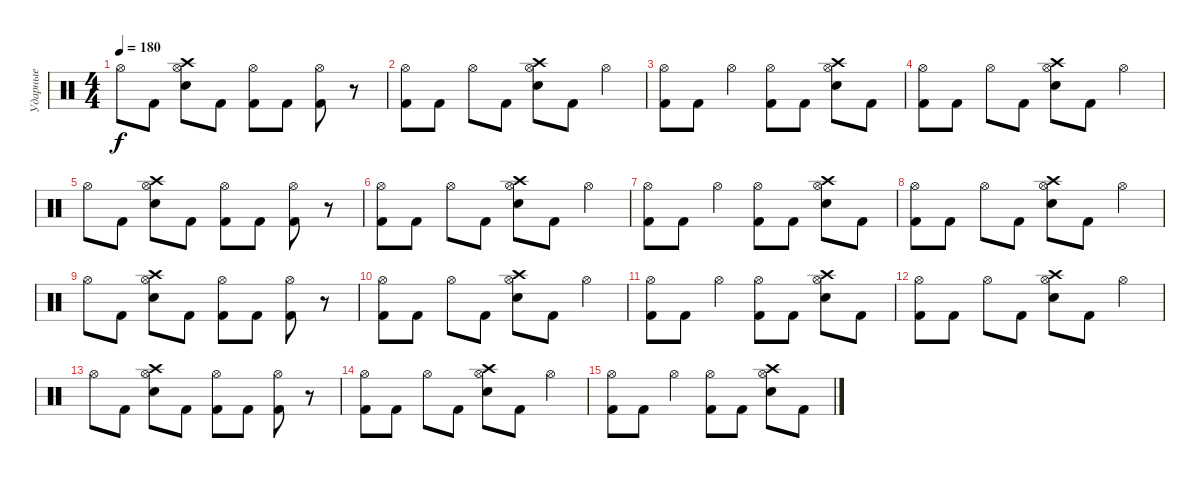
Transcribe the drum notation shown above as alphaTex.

\track ("Ударные" "Ударные") {instrument percussion}
\staff {score}
\articulation defaults
\ts (4 4)
\tempo 180
\clef neutral
\ks c "Hi-Hat (open)".8{dy f} "Kick (hit) 2".8
("Electric Snare (hit)" "Crash high (hit)" "Hi-Hat (open)").8 "Kick (hit) 2".8 ("Kick (hit) 2" "Hi-Hat (open)").8 "Kick (hit) 2".8 ("Kick (hit) 2" "Hi-Hat (open)").8 r.8 |
("Kick (hit) 2" "Hi-Hat (open)").8 "Kick (hit) 2".8 "Hi-Hat (open)".8 "Kick (hit) 2".8 ("Electric Snare (hit)" "Crash high (hit)" "Hi-Hat (open)").8 "Kick (hit) 2".8 "Hi-Hat (open)".4 |
("Kick (hit) 2" "Hi-Hat (open)").8 "Kick (hit) 2".8 "Hi-Hat (open)".4 ("Kick (hit) 2" "Hi-Hat (open)").8 "Kick (hit) 2".8 ("Electric Snare (hit)" "Crash high (hit)" "Hi-Hat (open)").8 "Kick (hit) 2".8 |
("Kick (hit) 2" "Hi-Hat (open)").8 "Kick (hit) 2".8 "Hi-Hat (open)".8 "Kick (hit) 2".8 ("Electric Snare (hit)" "Crash high (hit)" "Hi-Hat (open)").8 "Kick (hit) 2".8 "Hi-Hat (open)".4 |
"Hi-Hat (open)".8 "Kick (hit) 2".8 ("Electric Snare (hit)" "Crash high (hit)" "Hi-Hat (open)").8 "Kick (hit) 2".8 ("Kick (hit) 2" "Hi-Hat (open)").8 "Kick (hit) 2".8 ("Kick (hit) 2" "Hi-Hat (open)").8 r.8 |
("Kick (hit) 2" "Hi-Hat (open)").8 "Kick (hit) 2".8 "Hi-Hat (open)".8 "Kick (hit) 2".8 ("Electric Snare (hit)" "Crash high (hit)" "Hi-Hat (open)").8 "Kick (hit) 2".8 "Hi-Hat (open)".4 |
("Kick (hit) 2" "Hi-Hat (open)").8 "Kick (hit) 2".8 "Hi-Hat (open)".4 ("Kick (hit) 2" "Hi-Hat (open)").8 "Kick (hit) 2".8 ("Electric Snare (hit)" "Crash high (hit)" "Hi-Hat (open)").8 "Kick (hit) 2".8 |
("Kick (hit) 2" "Hi-Hat (open)").8 "Kick (hit) 2".8 "Hi-Hat (open)".8 "Kick (hit) 2".8 ("Electric Snare (hit)" "Crash high (hit)" "Hi-Hat (open)").8 "Kick (hit) 2".8 "Hi-Hat (open)".4 |
"Hi-Hat (open)".8 "Kick (hit) 2".8 ("Electric Snare (hit)" "Crash high (hit)" "Hi-Hat (open)").8 "Kick (hit) 2".8 ("Kick (hit) 2" "Hi-Hat (open)").8 "Kick (hit) 2".8 ("Kick (hit) 2" "Hi-Hat (open)").8 r.8 |
("Kick (hit) 2" "Hi-Hat (open)").8 "Kick (hit) 2".8 "Hi-Hat (open)".8 "Kick (hit) 2".8 ("Electric Snare (hit)" "Crash high (hit)" "Hi-Hat (open)").8 "Kick (hit) 2".8 "Hi-Hat (open)".4 |
("Kick (hit) 2" "Hi-Hat (open)").8 "Kick (hit) 2".8 "Hi-Hat (open)".4 ("Kick (hit) 2" "Hi-Hat (open)").8 "Kick (hit) 2".8 ("Electric Snare (hit)" "Crash high (hit)" "Hi-Hat (open)").8 "Kick (hit) 2".8 |
("Kick (hit) 2" "Hi-Hat (open)").8 "Kick (hit) 2".8 "Hi-Hat (open)".8 "Kick (hit) 2".8 ("Electric Snare (hit)" "Crash high (hit)" "Hi-Hat (open)").8 "Kick (hit) 2".8 "Hi-Hat (open)".4 |
"Hi-Hat (open)".8 "Kick (hit) 2".8 ("Electric Snare (hit)" "Crash high (hit)" "Hi-Hat (open)").8 "Kick (hit) 2".8 ("Kick (hit) 2" "Hi-Hat (open)").8 "Kick (hit) 2".8 ("Kick (hit) 2" "Hi-Hat (open)").8 r.8 |
("Kick (hit) 2" "Hi-Hat (open)").8 "Kick (hit) 2".8 "Hi-Hat (open)".8 "Kick (hit) 2".8 ("Electric Snare (hit)" "Crash high (hit)" "Hi-Hat (open)").8 "Kick (hit) 2".8 "Hi-Hat (open)".4 |
("Kick (hit) 2" "Hi-Hat (open)").8 "Kick (hit) 2".8 "Hi-Hat (open)".4 ("Kick (hit) 2" "Hi-Hat (open)").8 "Kick (hit) 2".8 ("Electric Snare (hit)" "Crash high (hit)" "Hi-Hat (open)").8 "Kick (hit) 2".8
